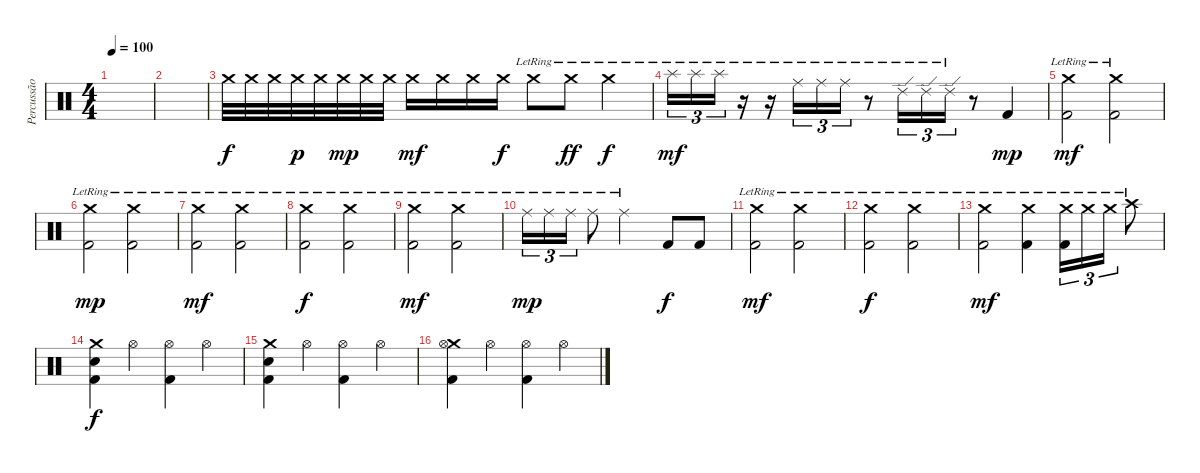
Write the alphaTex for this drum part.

\track ("Percussão" "Percussão") {instrument percussion}
\staff {score}
\articulation defaults
\ts (4 4)
\tempo 100
\clef neutral
\ks c
|
|
"Crash medium (hit)".32 "Crash medium (hit)".32 "Crash medium (hit)".32 "Crash medium (hit)".32{dy p} "Crash medium (hit)".32 "Crash medium (hit)".32{dy mp} "Crash medium (hit)".32 "Crash medium (hit)".32 "Crash medium (hit)".16{dy mf} "Crash medium (hit)".16 "Crash medium (hit)".16 "Crash medium (hit)".16{dy f} "Crash medium (hit)"{lr}.8 "Crash medium (hit)"{lr}.8{dy ff} "Crash medium (hit)"{lr}.4{dy f} |
"Splash (hit)"{lr}.16{tu (3 2) dy mf} "Splash (hit)"{lr}.16{tu (3 2)} "Splash (hit)"{lr}.16{tu (3 2)} r.16 r.16 "Ride (middle)"{lr}.16{tu (3 2)} "Ride (middle)"{lr}.16{tu (3 2)} "Ride (middle)"{lr}.16{tu (3 2)} r.8 "Ride (edge) 2"{lr}.16{tu (3 2)} "Ride (edge) 2"{lr}.16{tu (3 2)} "Ride (edge) 2"{lr}.16{tu (3 2)} r.8 "Kick (hit) 2".4{dy mp} |
("Crash medium (hit)"{lr} "Kick (hit) 2").2{dy mf} ("Crash medium (hit)"{lr} "Kick (hit) 2").2 |
("Crash medium (hit)"{lr} "Kick (hit) 2").2{dy mp} ("Crash medium (hit)"{lr} "Kick (hit) 2").2 |
("Crash medium (hit)"{lr} "Kick (hit) 2").2{dy mf} ("Crash medium (hit)"{lr} "Kick (hit) 2").2 |
("Crash medium (hit)"{lr} "Kick (hit) 2").2{dy f} ("Crash medium (hit)"{lr} "Kick (hit) 2").2 |
("Crash medium (hit)"{lr} "Kick (hit) 2").2{dy mf} ("Crash medium (hit)"{lr} "Kick (hit) 2").2 |
"Ride (middle)"{lr}.16{tu (3 2) dy mp} "Ride (middle)"{lr}.16{tu (3 2)} "Ride (middle)"{lr}.16{tu (3 2)} "Ride (middle)"{lr}.8 "Ride (middle)"{lr}.2 "Kick (hit) 2".8{dy f} "Kick (hit) 2".8 |
("Crash medium (hit)"{lr} "Kick (hit) 2").2{dy mf} ("Crash medium (hit)"{lr} "Kick (hit) 2").2 |
("Crash medium (hit)"{lr} "Kick (hit) 2").2{dy f} ("Crash medium (hit)"{lr} "Kick (hit) 2").2 |
("Crash medium (hit)"{lr} "Kick (hit) 2").2{dy mf} ("Crash medium (hit)"{lr} "Kick (hit) 2").4 ("Crash medium (hit)"{lr} "Kick (hit) 2").16{tu (3 2)} "Crash medium (hit)"{lr}.16{tu (3 2)} "Crash medium (hit)"{lr}.16{tu (3 2)} "Crash high (hit)"{lr}.8 |
("Crash medium (hit)" "Electric Snare (hit)" "Kick (hit) 2").4{dy f} "Hi-Hat (open)".4 ("Hi-Hat (open)" "Kick (hit) 2").4 "Hi-Hat (open)".4 |
("Crash medium (hit)" "Electric Snare (hit)" "Kick (hit) 2").4 "Hi-Hat (open)".4 ("Hi-Hat (open)" "Kick (hit) 2").4 "Hi-Hat (open)".4 |
("Crash medium (hit)" "Hi-Hat (open)" "Kick (hit) 2").4 "Hi-Hat (open)".4 ("Hi-Hat (open)" "Kick (hit) 2").4 "Hi-Hat (open)".4
